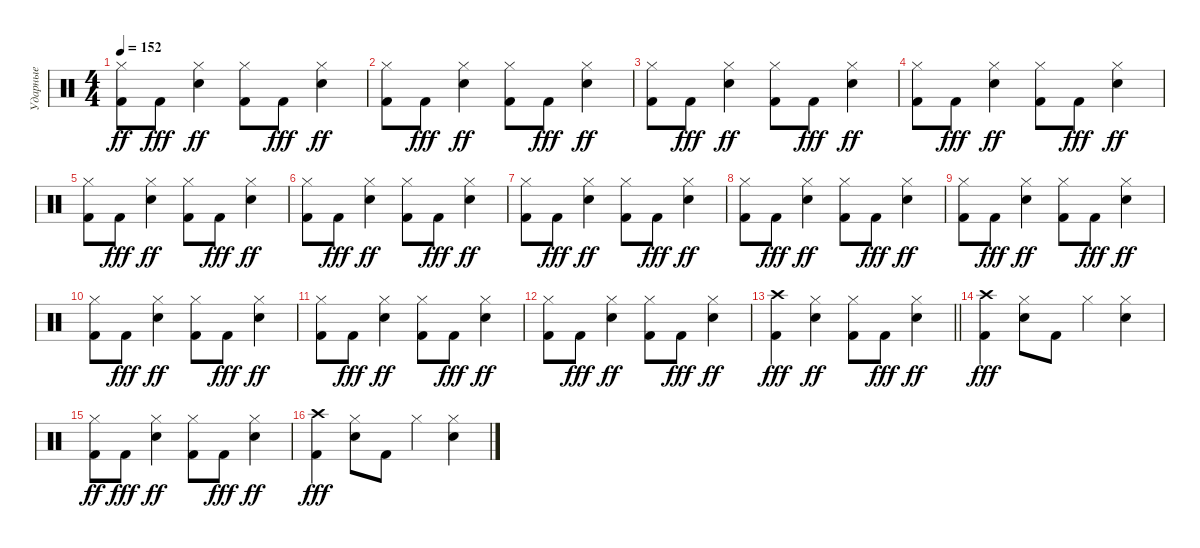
\track ("Ударные" "Ударные") {instrument percussion}
\staff
\articulation defaults
\ts (4 4)
\tempo 152
\clef neutral
\ks c
("Kick (hit) 2" "Hi-Hat (closed)").8{dy ff} "Kick (hit) 2".8{dy fff} ("Snare (hit) 2" "Hi-Hat (closed)").4{dy ff} ("Kick (hit) 2" "Hi-Hat (closed)").8 "Kick (hit) 2".8{dy fff} ("Snare (hit) 2" "Hi-Hat (closed)").4{dy ff} |
("Kick (hit) 2" "Hi-Hat (closed)").8 "Kick (hit) 2".8{dy fff} ("Snare (hit) 2" "Hi-Hat (closed)").4{dy ff} ("Kick (hit) 2" "Hi-Hat (closed)").8 "Kick (hit) 2".8{dy fff} ("Snare (hit) 2" "Hi-Hat (closed)").4{dy ff} |
("Kick (hit) 2" "Hi-Hat (closed)").8 "Kick (hit) 2".8{dy fff} ("Snare (hit) 2" "Hi-Hat (closed)").4{dy ff} ("Kick (hit) 2" "Hi-Hat (closed)").8 "Kick (hit) 2".8{dy fff} ("Snare (hit) 2" "Hi-Hat (closed)").4{dy ff} |
("Kick (hit) 2" "Hi-Hat (closed)").8 "Kick (hit) 2".8{dy fff} ("Snare (hit) 2" "Hi-Hat (closed)").4{dy ff} ("Kick (hit) 2" "Hi-Hat (closed)").8 "Kick (hit) 2".8{dy fff} ("Snare (hit) 2" "Hi-Hat (closed)").4{dy ff} |
("Kick (hit) 2" "Hi-Hat (closed)").8 "Kick (hit) 2".8{dy fff} ("Snare (hit) 2" "Hi-Hat (closed)").4{dy ff} ("Kick (hit) 2" "Hi-Hat (closed)").8 "Kick (hit) 2".8{dy fff} ("Snare (hit) 2" "Hi-Hat (closed)").4{dy ff} |
("Kick (hit) 2" "Hi-Hat (closed)").8 "Kick (hit) 2".8{dy fff} ("Snare (hit) 2" "Hi-Hat (closed)").4{dy ff} ("Kick (hit) 2" "Hi-Hat (closed)").8 "Kick (hit) 2".8{dy fff} ("Snare (hit) 2" "Hi-Hat (closed)").4{dy ff} |
("Kick (hit) 2" "Hi-Hat (closed)").8 "Kick (hit) 2".8{dy fff} ("Snare (hit) 2" "Hi-Hat (closed)").4{dy ff} ("Kick (hit) 2" "Hi-Hat (closed)").8 "Kick (hit) 2".8{dy fff} ("Snare (hit) 2" "Hi-Hat (closed)").4{dy ff} |
("Kick (hit) 2" "Hi-Hat (closed)").8 "Kick (hit) 2".8{dy fff} ("Snare (hit) 2" "Hi-Hat (closed)").4{dy ff} ("Kick (hit) 2" "Hi-Hat (closed)").8 "Kick (hit) 2".8{dy fff} ("Snare (hit) 2" "Hi-Hat (closed)").4{dy ff} |
("Kick (hit) 2" "Hi-Hat (closed)").8 "Kick (hit) 2".8{dy fff} ("Snare (hit) 2" "Hi-Hat (closed)").4{dy ff} ("Kick (hit) 2" "Hi-Hat (closed)").8 "Kick (hit) 2".8{dy fff} ("Snare (hit) 2" "Hi-Hat (closed)").4{dy ff} |
("Kick (hit) 2" "Hi-Hat (closed)").8 "Kick (hit) 2".8{dy fff} ("Snare (hit) 2" "Hi-Hat (closed)").4{dy ff} ("Kick (hit) 2" "Hi-Hat (closed)").8 "Kick (hit) 2".8{dy fff} ("Snare (hit) 2" "Hi-Hat (closed)").4{dy ff} |
("Kick (hit) 2" "Hi-Hat (closed)").8 "Kick (hit) 2".8{dy fff} ("Snare (hit) 2" "Hi-Hat (closed)").4{dy ff} ("Kick (hit) 2" "Hi-Hat (closed)").8 "Kick (hit) 2".8{dy fff} ("Snare (hit) 2" "Hi-Hat (closed)").4{dy ff} |
("Kick (hit) 2" "Hi-Hat (closed)").8 "Kick (hit) 2".8{dy fff} ("Snare (hit) 2" "Hi-Hat (closed)").4{dy ff} ("Kick (hit) 2" "Hi-Hat (closed)").8 "Kick (hit) 2".8{dy fff} ("Snare (hit) 2" "Hi-Hat (closed)").4{dy ff} |
\barLineRight lightlight
("Kick (hit) 2" "Crash high (hit)").4{dy fff} ("Snare (hit) 2" "Hi-Hat (closed)").4{dy ff} ("Kick (hit) 2" "Hi-Hat (closed)").8 "Kick (hit) 2".8{dy fff} ("Snare (hit) 2" "Hi-Hat (closed)").4{dy ff} |
("Kick (hit) 2" "Crash high (hit)").4{dy fff} ("Snare (hit) 2" "Hi-Hat (closed)").8 "Kick (hit) 2".8 "Hi-Hat (closed)".4 ("Snare (hit) 2" "Hi-Hat (closed)").4 |
("Kick (hit) 2" "Hi-Hat (closed)").8{dy ff} "Kick (hit) 2".8{dy fff} ("Snare (hit) 2" "Hi-Hat (closed)").4{dy ff} ("Kick (hit) 2" "Hi-Hat (closed)").8 "Kick (hit) 2".8{dy fff} ("Snare (hit) 2" "Hi-Hat (closed)").4{dy ff} |
("Kick (hit) 2" "Crash high (hit)").4{dy fff} ("Snare (hit) 2" "Hi-Hat (closed)").8 "Kick (hit) 2".8 "Hi-Hat (closed)".4 ("Snare (hit) 2" "Hi-Hat (closed)").4
